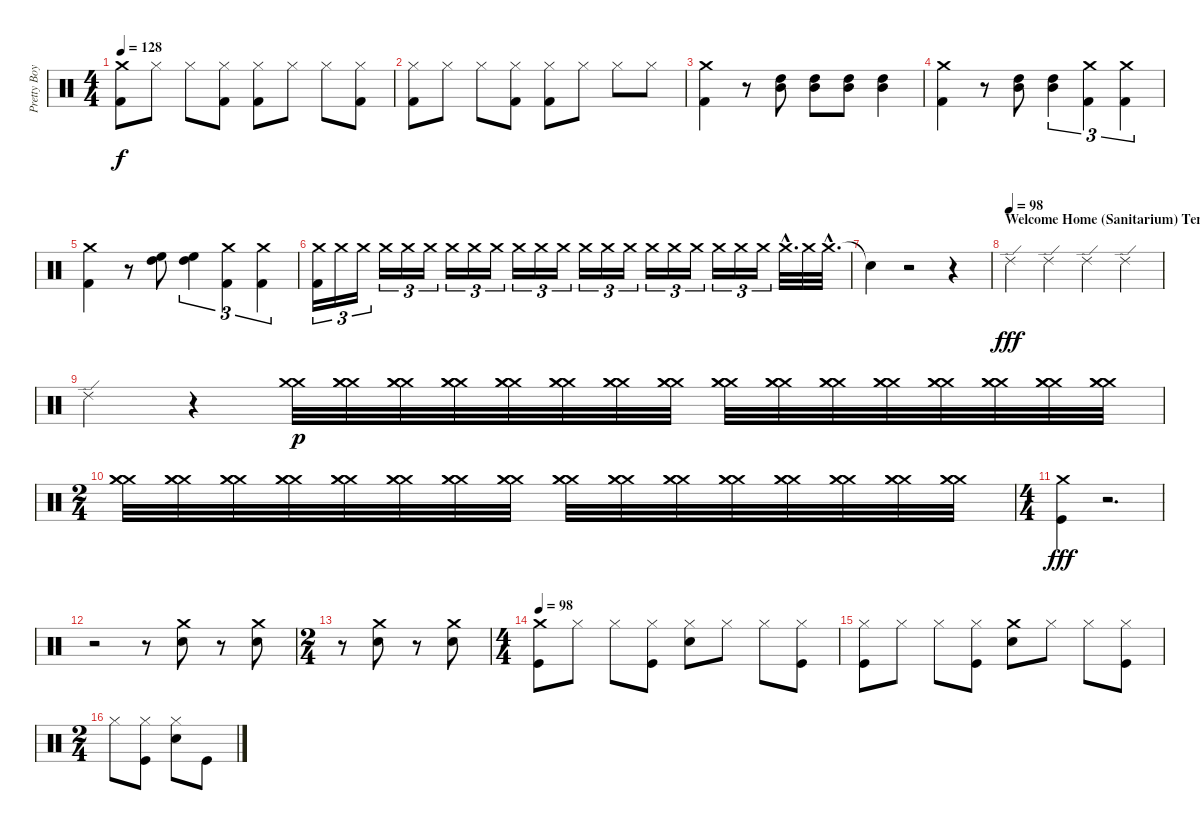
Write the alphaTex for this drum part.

\track ("Pretty Boy Geoff (Lars Drums)" "Pretty Boy") {instrument percussion}
\staff {score}
\articulation defaults
\ts (4 4)
\tempo 128
\clef neutral
\ks c
("Kick (hit) 2" "Crash medium (hit)").8{dy f} "Hi-Hat (closed)".8 "Hi-Hat (closed)".8 ("Kick (hit) 2" "Hi-Hat (closed)").8 ("Kick (hit) 2" "Hi-Hat (closed)").8 "Hi-Hat (closed)".8 "Hi-Hat (closed)".8 ("Kick (hit) 2" "Hi-Hat (closed)").8 |
("Hi-Hat (closed)" "Kick (hit) 2").8 "Hi-Hat (closed)".8 "Hi-Hat (closed)".8 ("Kick (hit) 2" "Hi-Hat (closed)").8 ("Hi-Hat (closed)" "Kick (hit) 2").8 "Hi-Hat (closed)".8 "Hi-Hat (closed)".8 "Hi-Hat (closed)".8 |
("Kick (hit) 2" "Crash medium (hit)").4 r.8 ("High Tom (hit)" "Mid Tom (hit)").8 ("High Tom (hit)" "Mid Tom (hit)").8 ("High Tom (hit)" "Mid Tom (hit)").8 ("High Tom (hit)" "Mid Tom (hit)").4 |
("Kick (hit) 2" "Crash medium (hit)").4 r.8 ("Mid Tom (hit)" "High Tom (hit)").8 ("High Tom (hit)" "Mid Tom (hit)").4{tu (3 2)} ("Kick (hit) 2" "Crash medium (hit)").4{tu (3 2)} ("Kick (hit) 2" "Crash medium (hit)").4{tu (3 2)} |
("Crash medium (hit)" "Kick (hit) 2").4 r.8 ("High Floor Tom (hit)" "High Tom (hit)").8 ("High Tom (hit)" "High Floor Tom (hit)").4{tu (3 2)} ("Kick (hit) 2" "Crash medium (hit)").4{tu (3 2)} ("Kick (hit) 2" "Crash medium (hit)").4{tu (3 2)} |
("Kick (hit) 2" "Crash medium (hit)").16{tu (3 2)} "Crash medium (hit)".16{tu (3 2)} "Crash medium (hit)".16{tu (3 2)} "Crash medium (hit)".16{tu (3 2)} "Crash medium (hit)".16{tu (3 2)} "Crash medium (hit)".16{tu (3 2)} "Crash medium (hit)".16{tu (3 2)} "Crash medium (hit)".16{tu (3 2)} "Crash medium (hit)".16{tu (3 2)} "Crash medium (hit)".16{tu (3 2)} "Crash medium (hit)".16{tu (3 2)} "Crash medium (hit)".16{tu (3 2)} "Crash medium (hit)".16{tu (3 2)} "Crash medium (hit)".16{tu (3 2)} "Crash medium (hit)".16{tu (3 2)} "Crash medium (hit)".16{tu (3 2)} "Crash medium (hit)".16{tu (3 2)} "Crash medium (hit)".16{tu (3 2)} "Crash medium (hit)".16{tu (3 2)} "Crash medium (hit)".16{tu (3 2)} "Crash medium (hit)".16{tu (3 2)} "Crash medium (hit)"{hac}.32{d} "Crash medium (hit)".32 "Crash medium (hit)"{hac}.32{d} |
"Snare (hit)"{t}.4 r.2 r.4 |
\section ("" "Welcome Home (Sanitarium) Tempo = 98")
\tempo (98)
"Ride (edge) 2".4{dy fff} "Ride (edge) 2".4 "Ride (edge) 2".4 "Ride (edge) 2".4 |
"Ride (edge) 2".4 r.4 ("Crash medium (hit)" "Crash medium (hit)").32{dy p} ("Crash medium (hit)" "Crash medium (hit)" "Crash medium (hit)").32 ("Crash medium (hit)" "Crash medium (hit)" "Crash medium (hit)").32 ("Crash medium (hit)" "Crash medium (hit)" "Crash medium (hit)").32 ("Crash medium (hit)" "Crash medium (hit)" "Crash medium (hit)").32 ("Crash medium (hit)" "Crash medium (hit)" "Crash medium (hit)").32 ("Crash medium (hit)" "Crash medium (hit)" "Crash medium (hit)").32 ("Crash medium (hit)" "Crash medium (hit)" "Crash medium (hit)").32 ("Crash medium (hit)" "Crash medium (hit)" "Crash medium (hit)").32 ("Crash medium (hit)" "Crash medium (hit)" "Crash medium (hit)").32 ("Crash medium (hit)" "Crash medium (hit)" "Crash medium (hit)").32 ("Crash medium (hit)" "Crash medium (hit)" "Crash medium (hit)").32 ("Crash medium (hit)" "Crash medium (hit)" "Crash medium (hit)").32 ("Crash medium (hit)" "Crash medium (hit)" "Crash medium (hit)").32 ("Crash medium (hit)" "Crash medium (hit)" "Crash medium (hit)").32 ("Crash medium (hit)" "Crash medium (hit)" "Crash medium (hit)").32 |
\ts (2 4)
("Crash medium (hit)" "Crash medium (hit)" "Crash medium (hit)").32 ("Crash medium (hit)" "Crash medium (hit)" "Crash medium (hit)").32 ("Crash medium (hit)" "Crash medium (hit)" "Crash medium (hit)").32 ("Crash medium (hit)" "Crash medium (hit)" "Crash medium (hit)").32 ("Crash medium (hit)" "Crash medium (hit)" "Crash medium (hit)").32 ("Crash medium (hit)" "Crash medium (hit)" "Crash medium (hit)").32 ("Crash medium (hit)" "Crash medium (hit)" "Crash medium (hit)").32 ("Crash medium (hit)" "Crash medium (hit)" "Crash medium (hit)").32 ("Crash medium (hit)" "Crash medium (hit)" "Crash medium (hit)").32 ("Crash medium (hit)" "Crash medium (hit)" "Crash medium (hit)").32 ("Crash medium (hit)" "Crash medium (hit)" "Crash medium (hit)").32 ("Crash medium (hit)" "Crash medium (hit)" "Crash medium (hit)").32 ("Crash medium (hit)" "Crash medium (hit)" "Crash medium (hit)").32 ("Crash medium (hit)" "Crash medium (hit)" "Crash medium (hit)").32 ("Crash medium (hit)" "Crash medium (hit)" "Crash medium (hit)").32 ("Crash medium (hit)" "Crash medium (hit)" "Crash medium (hit)").32 |
\ts (4 4)
("Crash medium (hit)" "Kick (hit)").4{dy fff} r.2{d} |
r.2 r.8 ("Snare (hit) 2" "Crash medium (hit)").8 r.8 ("Snare (hit) 2" "Crash medium (hit)").8 |
\ts (2 4)
r.8 ("Snare (hit) 2" "Crash medium (hit)").8 r.8 ("Snare (hit) 2" "Crash medium (hit)").8 |
\ts (4 4)
\tempo 98
("Kick (hit)" "Crash medium (hit)").8 "Hi-Hat (closed)".8 "Hi-Hat (closed)".8 ("Kick (hit)" "Hi-Hat (closed)").8 ("Snare (hit) 2" "Hi-Hat (closed)").8 "Hi-Hat (closed)".8 "Hi-Hat (closed)".8 ("Kick (hit)" "Hi-Hat (closed)").8 |
("Kick (hit)" "Hi-Hat (closed)").8 "Hi-Hat (closed)".8 "Hi-Hat (closed)".8 ("Kick (hit)" "Hi-Hat (closed)").8 ("Crash medium (hit)" "Snare (hit) 2").8 "Hi-Hat (closed)".8 "Hi-Hat (closed)".8 ("Kick (hit)" "Hi-Hat (closed)").8 |
\ts (2 4)
"Hi-Hat (closed)".8 ("Kick (hit)" "Hi-Hat (closed)").8 ("Hi-Hat (closed)" "Snare (hit) 2").8 "Kick (hit)".8
